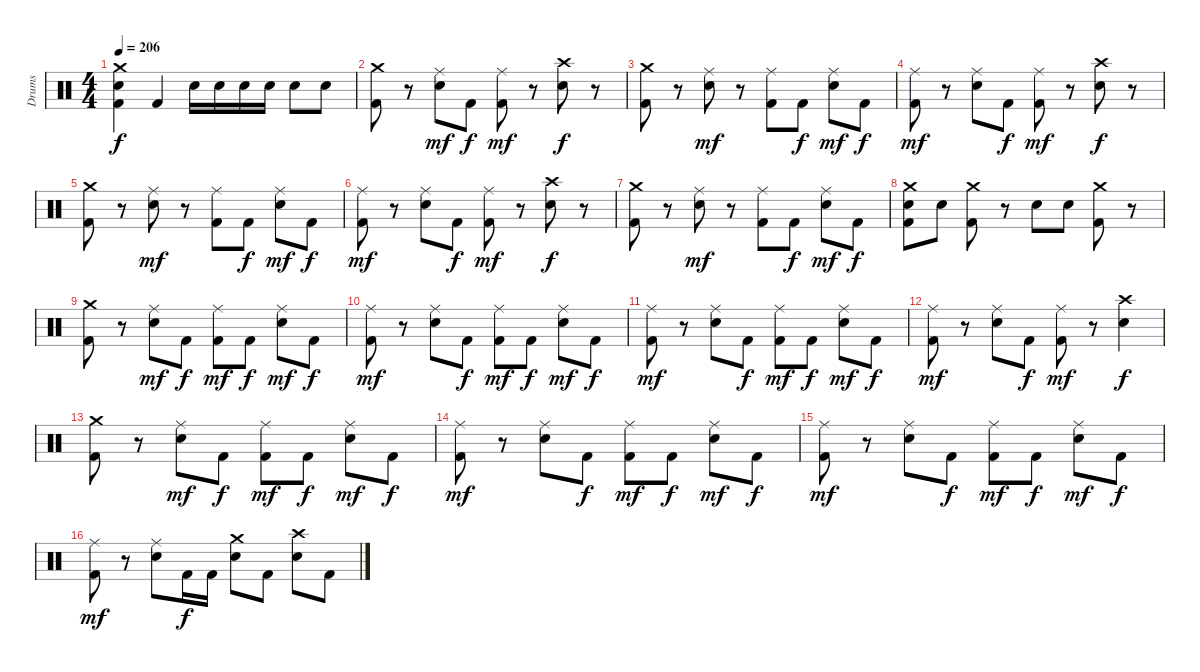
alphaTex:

\track ("Drums" "Drums") {instrument percussion}
\staff {score}
\articulation defaults
\ts (4 4)
\tempo 206
\clef neutral
\ks c
("Crash medium (hit)" "Snare (hit) 2" "Kick (hit) 2").4{dy f} "Kick (hit) 2".4 "Snare (hit) 2".16 "Snare (hit) 2".16 "Snare (hit) 2".16 "Snare (hit) 2".16 "Snare (hit) 2".8 "Snare (hit) 2".8 |
("Crash medium (hit)" "Kick (hit) 2").8 r.8 ("Ride (middle)" "Snare (hit) 2").8{dy mf} "Kick (hit) 2".8{dy f} ("Ride (middle)" "Kick (hit) 2").8{dy mf} r.8 ("Crash high (hit)" "Snare (hit) 2").8{dy f} r.8 |
("Crash medium (hit)" "Kick (hit) 2").8 r.8 ("Ride (middle)" "Snare (hit) 2").8{dy mf} r.8 ("Ride (middle)" "Kick (hit) 2").8 "Kick (hit) 2".8{dy f} ("Ride (middle)" "Snare (hit) 2").8{dy mf} "Kick (hit) 2".8{dy f} |
("Ride (middle)" "Kick (hit) 2").8{dy mf} r.8 ("Ride (middle)" "Snare (hit) 2").8 "Kick (hit) 2".8{dy f} ("Ride (middle)" "Kick (hit) 2").8{dy mf} r.8 ("Crash high (hit)" "Snare (hit) 2").8{dy f} r.8 |
("Crash medium (hit)" "Kick (hit) 2").8 r.8 ("Ride (middle)" "Snare (hit) 2").8{dy mf} r.8 ("Ride (middle)" "Kick (hit) 2").8 "Kick (hit) 2".8{dy f} ("Ride (middle)" "Snare (hit) 2").8{dy mf} "Kick (hit) 2".8{dy f} |
("Ride (middle)" "Kick (hit) 2").8{dy mf} r.8 ("Ride (middle)" "Snare (hit) 2").8 "Kick (hit) 2".8{dy f} ("Ride (middle)" "Kick (hit) 2").8{dy mf} r.8 ("Crash high (hit)" "Snare (hit) 2").8{dy f} r.8 |
("Crash medium (hit)" "Kick (hit) 2").8 r.8 ("Ride (middle)" "Snare (hit) 2").8{dy mf} r.8 ("Ride (middle)" "Kick (hit) 2").8 "Kick (hit) 2".8{dy f} ("Ride (middle)" "Snare (hit) 2").8{dy mf} "Kick (hit) 2".8{dy f} |
("Crash medium (hit)" "Snare (hit) 2" "Kick (hit) 2").8 "Snare (hit) 2".8 ("Crash medium (hit)" "Kick (hit) 2").8 r.8 "Snare (hit) 2".8 "Snare (hit) 2".8 ("Crash medium (hit)" "Kick (hit) 2").8 r.8 |
("Crash medium (hit)" "Kick (hit) 2").8 r.8 ("Ride (middle)" "Snare (hit) 2").8{dy mf} "Kick (hit) 2".8{dy f} ("Ride (middle)" "Kick (hit) 2").8{dy mf} "Kick (hit) 2".8{dy f} ("Ride (middle)" "Snare (hit) 2").8{dy mf} "Kick (hit) 2".8{dy f} |
("Ride (middle)" "Kick (hit) 2").8{dy mf} r.8 ("Ride (middle)" "Snare (hit) 2").8 "Kick (hit) 2".8{dy f} ("Ride (middle)" "Kick (hit) 2").8{dy mf} "Kick (hit) 2".8{dy f} ("Ride (middle)" "Snare (hit) 2").8{dy mf} "Kick (hit) 2".8{dy f} |
("Ride (middle)" "Kick (hit) 2").8{dy mf} r.8 ("Ride (middle)" "Snare (hit) 2").8 "Kick (hit) 2".8{dy f} ("Ride (middle)" "Kick (hit) 2").8{dy mf} "Kick (hit) 2".8{dy f} ("Ride (middle)" "Snare (hit) 2").8{dy mf} "Kick (hit) 2".8{dy f} |
("Ride (middle)" "Kick (hit) 2").8{dy mf} r.8 ("Ride (middle)" "Snare (hit) 2").8 "Kick (hit) 2".8{dy f} ("Ride (middle)" "Kick (hit) 2").8{dy mf} r.8 ("Crash high (hit)" "Snare (hit) 2").4{dy f} |
("Crash medium (hit)" "Kick (hit) 2").8 r.8 ("Ride (middle)" "Snare (hit) 2").8{dy mf} "Kick (hit) 2".8{dy f} ("Ride (middle)" "Kick (hit) 2").8{dy mf} "Kick (hit) 2".8{dy f} ("Ride (middle)" "Snare (hit) 2").8{dy mf} "Kick (hit) 2".8{dy f} |
("Ride (middle)" "Kick (hit) 2").8{dy mf} r.8 ("Ride (middle)" "Snare (hit) 2").8 "Kick (hit) 2".8{dy f} ("Ride (middle)" "Kick (hit) 2").8{dy mf} "Kick (hit) 2".8{dy f} ("Ride (middle)" "Snare (hit) 2").8{dy mf} "Kick (hit) 2".8{dy f} |
("Ride (middle)" "Kick (hit) 2").8{dy mf} r.8 ("Ride (middle)" "Snare (hit) 2").8 "Kick (hit) 2".8{dy f} ("Ride (middle)" "Kick (hit) 2").8{dy mf} "Kick (hit) 2".8{dy f} ("Ride (middle)" "Snare (hit) 2").8{dy mf} "Kick (hit) 2".8{dy f} |
("Ride (middle)" "Kick (hit) 2").8{dy mf} r.8 ("Ride (middle)" "Snare (hit) 2").8 "Kick (hit) 2".16{dy f} "Kick (hit) 2".16 ("Crash medium (hit)" "Snare (hit) 2").8 "Kick (hit) 2".8 ("Crash high (hit)" "Snare (hit) 2").8 "Kick (hit) 2".8
